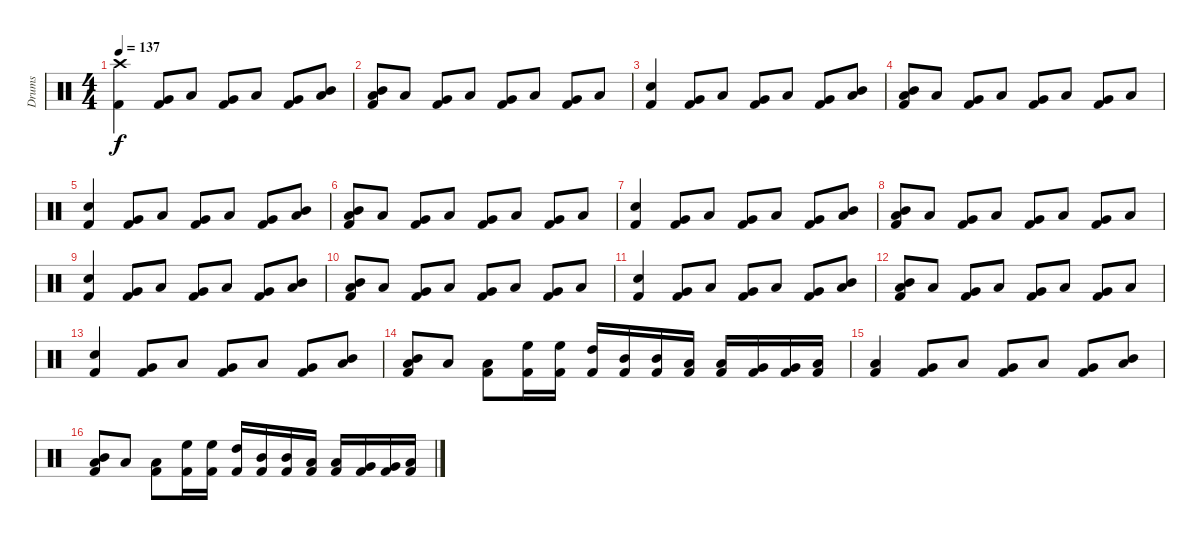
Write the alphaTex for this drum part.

\track ("Drums" "Drums") {instrument percussion}
\staff {score}
\articulation defaults
\ts (4 4)
\tempo 137
\clef neutral
\ks c
("Crash high (hit)" "Kick (hit) 2").4{dy f} ("Very Low Tom (hit)" "Kick (hit) 2").8 "Low Floor Tom (hit)".8 ("Very Low Tom (hit)" "Kick (hit) 2").8 "Low Floor Tom (hit)".8 ("Very Low Tom (hit)" "Kick (hit) 2").8 ("Mid Tom (hit)" "Low Floor Tom (hit)").8 |
("Mid Tom (hit)" "Low Floor Tom (hit)" "Kick (hit) 2").8 "Low Floor Tom (hit)".8 ("Very Low Tom (hit)" "Kick (hit) 2").8 "Low Floor Tom (hit)".8 ("Very Low Tom (hit)" "Kick (hit) 2").8 "Low Floor Tom (hit)".8 ("Very Low Tom (hit)" "Kick (hit) 2").8 "Low Floor Tom (hit)".8 |
("Snare (hit) 2" "Kick (hit) 2").4 ("Very Low Tom (hit)" "Kick (hit) 2").8 "Low Floor Tom (hit)".8 ("Very Low Tom (hit)" "Kick (hit) 2").8 "Low Floor Tom (hit)".8 ("Very Low Tom (hit)" "Kick (hit) 2").8 ("Mid Tom (hit)" "Low Floor Tom (hit)").8 |
("Mid Tom (hit)" "Low Floor Tom (hit)" "Kick (hit) 2").8 "Low Floor Tom (hit)".8 ("Very Low Tom (hit)" "Kick (hit) 2").8 "Low Floor Tom (hit)".8 ("Very Low Tom (hit)" "Kick (hit) 2").8 "Low Floor Tom (hit)".8 ("Very Low Tom (hit)" "Kick (hit) 2").8 "Low Floor Tom (hit)".8 |
("Snare (hit) 2" "Kick (hit) 2").4 ("Very Low Tom (hit)" "Kick (hit) 2").8 "Low Floor Tom (hit)".8 ("Very Low Tom (hit)" "Kick (hit) 2").8 "Low Floor Tom (hit)".8 ("Very Low Tom (hit)" "Kick (hit) 2").8 ("Mid Tom (hit)" "Low Floor Tom (hit)").8 |
("Mid Tom (hit)" "Low Floor Tom (hit)" "Kick (hit) 2").8 "Low Floor Tom (hit)".8 ("Very Low Tom (hit)" "Kick (hit) 2").8 "Low Floor Tom (hit)".8 ("Very Low Tom (hit)" "Kick (hit) 2").8 "Low Floor Tom (hit)".8 ("Very Low Tom (hit)" "Kick (hit) 2").8 "Low Floor Tom (hit)".8 |
("Snare (hit) 2" "Kick (hit) 2").4 ("Very Low Tom (hit)" "Kick (hit) 2").8 "Low Floor Tom (hit)".8 ("Very Low Tom (hit)" "Kick (hit) 2").8 "Low Floor Tom (hit)".8 ("Very Low Tom (hit)" "Kick (hit) 2").8 ("Mid Tom (hit)" "Low Floor Tom (hit)").8 |
("Mid Tom (hit)" "Low Floor Tom (hit)" "Kick (hit) 2").8 "Low Floor Tom (hit)".8 ("Very Low Tom (hit)" "Kick (hit) 2").8 "Low Floor Tom (hit)".8 ("Very Low Tom (hit)" "Kick (hit) 2").8 "Low Floor Tom (hit)".8 ("Very Low Tom (hit)" "Kick (hit) 2").8 "Low Floor Tom (hit)".8 |
("Snare (hit) 2" "Kick (hit) 2").4 ("Very Low Tom (hit)" "Kick (hit) 2").8 "Low Floor Tom (hit)".8 ("Very Low Tom (hit)" "Kick (hit) 2").8 "Low Floor Tom (hit)".8 ("Very Low Tom (hit)" "Kick (hit) 2").8 ("Mid Tom (hit)" "Low Floor Tom (hit)").8 |
("Mid Tom (hit)" "Low Floor Tom (hit)" "Kick (hit) 2").8 "Low Floor Tom (hit)".8 ("Very Low Tom (hit)" "Kick (hit) 2").8 "Low Floor Tom (hit)".8 ("Very Low Tom (hit)" "Kick (hit) 2").8 "Low Floor Tom (hit)".8 ("Very Low Tom (hit)" "Kick (hit) 2").8 "Low Floor Tom (hit)".8 |
("Snare (hit) 2" "Kick (hit) 2").4 ("Very Low Tom (hit)" "Kick (hit) 2").8 "Low Floor Tom (hit)".8 ("Very Low Tom (hit)" "Kick (hit) 2").8 "Low Floor Tom (hit)".8 ("Very Low Tom (hit)" "Kick (hit) 2").8 ("Mid Tom (hit)" "Low Floor Tom (hit)").8 |
("Mid Tom (hit)" "Low Floor Tom (hit)" "Kick (hit) 2").8 "Low Floor Tom (hit)".8 ("Very Low Tom (hit)" "Kick (hit) 2").8 "Low Floor Tom (hit)".8 ("Very Low Tom (hit)" "Kick (hit) 2").8 "Low Floor Tom (hit)".8 ("Very Low Tom (hit)" "Kick (hit) 2").8 "Low Floor Tom (hit)".8 |
("Snare (hit) 2" "Kick (hit) 2").4 ("Very Low Tom (hit)" "Kick (hit) 2").8 "Low Floor Tom (hit)".8 ("Very Low Tom (hit)" "Kick (hit) 2").8 "Low Floor Tom (hit)".8 ("Very Low Tom (hit)" "Kick (hit) 2").8 ("Mid Tom (hit)" "Low Floor Tom (hit)").8 |
("Mid Tom (hit)" "Low Floor Tom (hit)" "Kick (hit) 2").8 "Low Floor Tom (hit)".8 ("Low Floor Tom (hit)" "Kick (hit) 2").8 ("High Floor Tom (hit)" "Kick (hit) 2").16 ("High Floor Tom (hit)" "Kick (hit) 2").16 ("High Tom (hit)" "Kick (hit) 2").16 ("Mid Tom (hit)" "Kick (hit) 2").16 ("Mid Tom (hit)" "Kick (hit) 2").16 ("Low Tom (hit)" "Kick (hit) 2").16 ("Low Tom (hit)" "Kick (hit) 2").16 ("Very Low Tom (hit)" "Kick (hit) 2").16 ("Very Low Tom (hit)" "Kick (hit) 2").16 ("Low Floor Tom (hit)" "Kick (hit) 2").16 |
("Low Floor Tom (hit)" "Kick (hit) 2").4 ("Very Low Tom (hit)" "Kick (hit) 2").8 "Low Floor Tom (hit)".8 ("Very Low Tom (hit)" "Kick (hit) 2").8 "Low Floor Tom (hit)".8 ("Very Low Tom (hit)" "Kick (hit) 2").8 ("Mid Tom (hit)" "Low Floor Tom (hit)").8 |
("Mid Tom (hit)" "Low Floor Tom (hit)" "Kick (hit) 2").8 "Low Floor Tom (hit)".8 ("Low Floor Tom (hit)" "Kick (hit) 2").8 ("High Floor Tom (hit)" "Kick (hit) 2").16 ("High Floor Tom (hit)" "Kick (hit) 2").16 ("High Tom (hit)" "Kick (hit) 2").16 ("Mid Tom (hit)" "Kick (hit) 2").16 ("Mid Tom (hit)" "Kick (hit) 2").16 ("Low Tom (hit)" "Kick (hit) 2").16 ("Low Tom (hit)" "Kick (hit) 2").16 ("Very Low Tom (hit)" "Kick (hit) 2").16 ("Very Low Tom (hit)" "Kick (hit) 2").16 ("Low Floor Tom (hit)" "Kick (hit) 2").16
